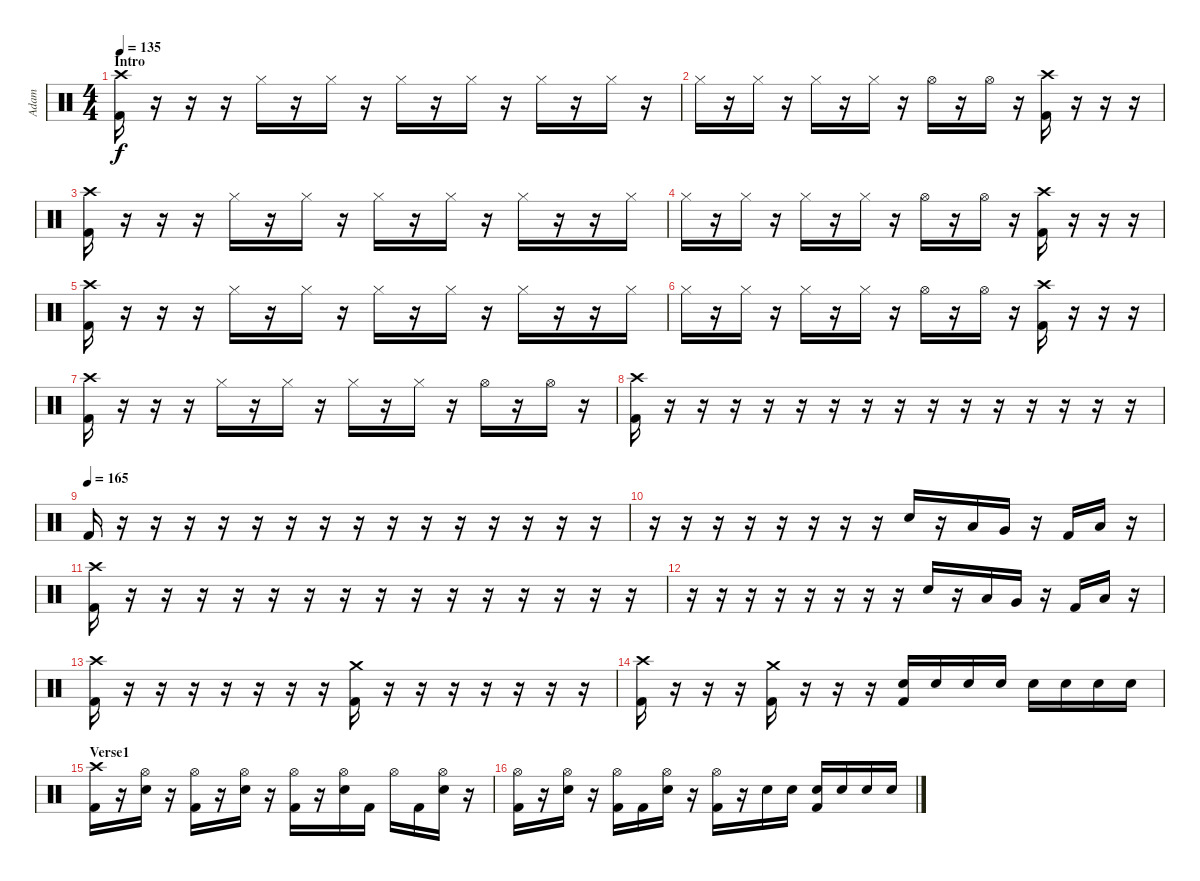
\track ("Adam" "Adam") {instrument percussion}
\staff {score}
\articulation defaults
\ts (4 4)
\section ("" "Intro")
\tempo 135
\clef neutral
\ks c
("Crash high (hit)" "Kick (hit) 2").16{dy f} r.16 r.16 r.16 "Hi-Hat (closed)".16 r.16 "Hi-Hat (closed)".16 r.16 "Hi-Hat (closed)".16 r.16 "Hi-Hat (closed)".16 r.16 "Hi-Hat (closed)".16 r.16 "Hi-Hat (closed)".16 r.16 |
"Hi-Hat (closed)".16 r.16 "Hi-Hat (closed)".16 r.16 "Hi-Hat (closed)".16 r.16 "Hi-Hat (closed)".16 r.16 "Hi-Hat (open)".16 r.16 "Hi-Hat (open)".16 r.16 ("Crash high (hit)" "Kick (hit) 2").16 r.16 r.16 r.16 |
("Crash high (hit)" "Kick (hit) 2").16 r.16 r.16 r.16 "Hi-Hat (closed)".16 r.16 "Hi-Hat (closed)".16 r.16 "Hi-Hat (closed)".16 r.16 "Hi-Hat (closed)".16 r.16 "Hi-Hat (closed)".16 r.16 r.16 "Hi-Hat (closed)".16 |
"Hi-Hat (closed)".16 r.16 "Hi-Hat (closed)".16 r.16 "Hi-Hat (closed)".16 r.16 "Hi-Hat (closed)".16 r.16 "Hi-Hat (open)".16 r.16 "Hi-Hat (open)".16 r.16 ("Crash high (hit)" "Kick (hit) 2").16 r.16 r.16 r.16 |
("Crash high (hit)" "Kick (hit) 2").16 r.16 r.16 r.16 "Hi-Hat (closed)".16 r.16 "Hi-Hat (closed)".16 r.16 "Hi-Hat (closed)".16 r.16 "Hi-Hat (closed)".16 r.16 "Hi-Hat (closed)".16 r.16 r.16 "Hi-Hat (closed)".16 |
"Hi-Hat (closed)".16 r.16 "Hi-Hat (closed)".16 r.16 "Hi-Hat (closed)".16 r.16 "Hi-Hat (closed)".16 r.16 "Hi-Hat (open)".16 r.16 "Hi-Hat (open)".16 r.16 ("Crash high (hit)" "Kick (hit) 2").16 r.16 r.16 r.16 |
("Crash high (hit)" "Kick (hit) 2").16 r.16 r.16 r.16 "Hi-Hat (closed)".16 r.16 "Hi-Hat (closed)".16 r.16 "Hi-Hat (closed)".16 r.16 "Hi-Hat (closed)".16 r.16 "Hi-Hat (open)".16 r.16 "Hi-Hat (open)".16 r.16 |
("Crash high (hit)" "Kick (hit) 2").16 r.16 r.16 r.16 r.16 r.16 r.16 r.16 r.16 r.16 r.16 r.16 r.16 r.16 r.16 r.16 |
\tempo (165)
"Kick (hit) 2".16 r.16 r.16 r.16 r.16 r.16 r.16 r.16 r.16 r.16 r.16 r.16 r.16 r.16 r.16 r.16 |
r.16 r.16 r.16 r.16 r.16 r.16 r.16 r.16 "Electric Snare (hit)".16 r.16 "Low Tom (hit)".16 "Very Low Tom (hit)".16 r.16 "Kick (hit) 2".16 "Low Tom (hit)".16 r.16 |
("Crash high (hit)" "Kick (hit) 2").16 r.16 r.16 r.16 r.16 r.16 r.16 r.16 r.16 r.16 r.16 r.16 r.16 r.16 r.16 r.16 |
r.16 r.16 r.16 r.16 r.16 r.16 r.16 r.16 "Electric Snare (hit)".16 r.16 "Low Tom (hit)".16 "Very Low Tom (hit)".16 r.16 "Kick (hit) 2".16 "Low Tom (hit)".16 r.16 |
("Crash high (hit)" "Kick (hit) 2").16 r.16 r.16 r.16 r.16 r.16 r.16 r.16 ("Crash medium (hit)" "Kick (hit) 2").16 r.16 r.16 r.16 r.16 r.16 r.16 r.16 |
("Crash high (hit)" "Kick (hit) 2").16 r.16 r.16 r.16 ("Crash medium (hit)" "Kick (hit) 2").16 r.16 r.16 r.16 ("Electric Snare (hit)" "Kick (hit) 2").16 "Electric Snare (hit)".16 "Electric Snare (hit)".16 "Electric Snare (hit)".16 "Electric Snare (hit)".16 "Electric Snare (hit)".16 "Electric Snare (hit)".16 "Electric Snare (hit)".16 |
\section ("" "Verse1")
("Crash high (hit)" "Kick (hit) 2").16 r.16 ("Hi-Hat (open)" "Electric Snare (hit)").16 r.16 ("Hi-Hat (open)" "Kick (hit) 2").16 r.16 ("Hi-Hat (open)" "Electric Snare (hit)").16 r.16 ("Hi-Hat (open)" "Kick (hit) 2").16 r.16 ("Hi-Hat (open)" "Electric Snare (hit)").16 "Kick (hit) 2".16 "Hi-Hat (open)".16 "Kick (hit) 2".16 ("Hi-Hat (open)" "Electric Snare (hit)").16 r.16 |
("Hi-Hat (open)" "Kick (hit) 2").16 r.16 ("Hi-Hat (open)" "Electric Snare (hit)").16 r.16 ("Hi-Hat (open)" "Kick (hit) 2").16 "Kick (hit) 2".16 ("Hi-Hat (open)" "Electric Snare (hit)").16 r.16 ("Hi-Hat (open)" "Kick (hit) 2").16 r.16 "Electric Snare (hit)".16 "Electric Snare (hit)".16 ("Electric Snare (hit)" "Kick (hit) 2").16 "Electric Snare (hit)".16 "Electric Snare (hit)".16 "Electric Snare (hit)".16
